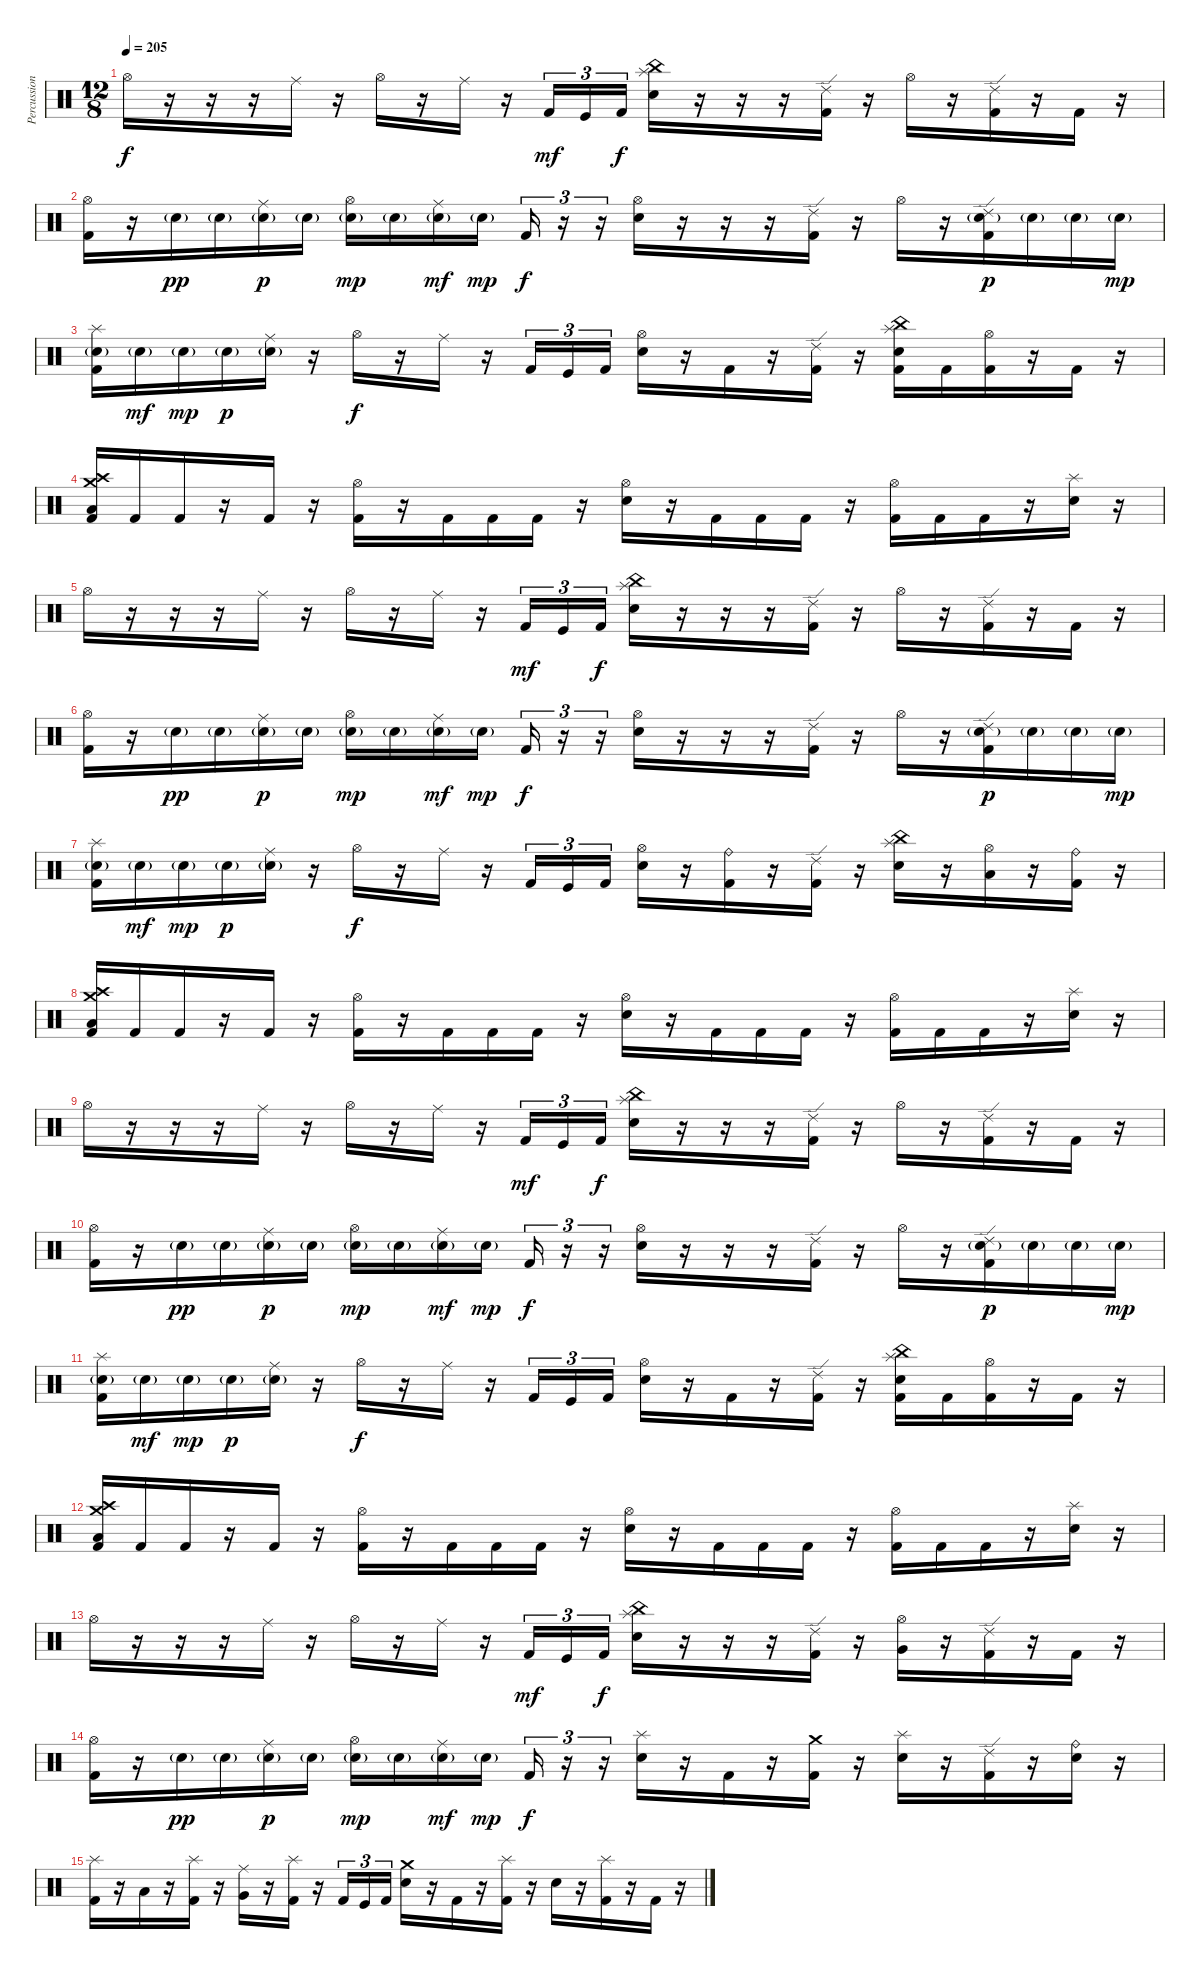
\track ("Percussion" "Percussion") {instrument percussion}
\staff {score}
\articulation defaults
\ts (12 8)
\tempo 205
\clef neutral
\ks c "Hi-Hat (open)".16{dy f}
r.16 r.16 r.16 "Ride (middle)".16 r.16 "Hi-Hat (open)".16 r.16 "Ride (middle)".16 r.16 "Kick (hit) 2".16{tu (3 2) dy mf} "Kick (hit)".16{tu (3 2)} "Kick (hit) 2".16{tu (3 2) dy f} ("China (hit)" "Splash (hit)" "Electric Snare (hit)").16 r.16 r.16 r.16 ("Ride (edge) 2" "Kick (hit) 2").16 r.16 "Hi-Hat (open)".16 r.16 ("Ride (edge) 2" "Kick (hit) 2").16 r.16 "Kick (hit) 2".16 r.16 |
("Hi-Hat (open)" "Kick (hit) 2").16 r.16 "Electric Snare (hit)"{g}.16{dy pp} "Electric Snare (hit)"{g}.16 ("Ride (middle)" "Electric Snare (hit)"{g}).16{dy p} "Electric Snare (hit)"{g}.16 ("Hi-Hat (open)" "Electric Snare (hit)"{g}).16{dy mp} "Electric Snare (hit)"{g}.16 ("Ride (middle)" "Electric Snare (hit)"{g}).16{dy mf} "Electric Snare (hit)"{g}.16{dy mp} "Kick (hit) 2".16{tu (3 2) dy f} r.16{tu (3 2)} r.16{tu (3 2)} ("Hi-Hat (open)" "Electric Snare (hit)").16 r.16 r.16 r.16 ("Ride (edge) 2" "Kick (hit) 2").16 r.16 "Hi-Hat (open)".16 r.16 ("Ride (edge) 2" "Electric Snare (hit)"{g} "Kick (hit) 2").16{dy p} "Electric Snare (hit)"{g}.16 "Electric Snare (hit)"{g}.16 "Electric Snare (hit)"{g}.16{dy mp} |
("Splash (hit)" "Electric Snare (hit)"{g} "Kick (hit) 2").16 "Electric Snare (hit)"{g}.16{dy mf} "Electric Snare (hit)"{g}.16{dy mp} "Electric Snare (hit)"{g}.16{dy p} ("Ride (middle)" "Electric Snare (hit)"{g}).16 r.16 "Hi-Hat (open)".16{dy f} r.16 "Ride (middle)".16 r.16 "Kick (hit) 2".16{tu (3 2)} "Kick (hit)".16{tu (3 2)} "Kick (hit) 2".16{tu (3 2)} ("Hi-Hat (open)" "Electric Snare (hit)").16 r.16 "Kick (hit) 2".16 r.16 ("Ride (edge) 2" "Kick (hit) 2").16 r.16 ("China (hit)" "Splash (hit)" "Electric Snare (hit)" "Kick (hit) 2").16 "Kick (hit) 2".16 ("Hi-Hat (open)" "Kick (hit) 2").16 r.16 "Kick (hit) 2".16 r.16 |
("Crash high (hit)" "Crash medium (hit)" "Low Floor Tom (hit)" "Kick (hit) 2").16 "Kick (hit) 2".16 "Kick (hit) 2".16 r.16 "Kick (hit) 2".16 r.16 ("Hi-Hat (open)" "Kick (hit) 2").16 r.16 "Kick (hit) 2".16 "Kick (hit) 2".16 "Kick (hit) 2".16 r.16 ("Hi-Hat (open)" "Electric Snare (hit)").16 r.16 "Kick (hit) 2".16 "Kick (hit) 2".16 "Kick (hit) 2".16 r.16 ("Hi-Hat (open)" "Kick (hit) 2").16 "Kick (hit) 2".16 "Kick (hit) 2".16 r.16 ("Splash (hit)" "Electric Snare (hit)").16 r.16 |
"Hi-Hat (open)".16 r.16 r.16 r.16 "Ride (middle)".16 r.16 "Hi-Hat (open)".16 r.16 "Ride (middle)".16 r.16 "Kick (hit) 2".16{tu (3 2) dy mf} "Kick (hit)".16{tu (3 2)} "Kick (hit) 2".16{tu (3 2) dy f} ("China (hit)" "Splash (hit)" "Electric Snare (hit)").16 r.16 r.16 r.16 ("Ride (edge) 2" "Kick (hit) 2").16 r.16 "Hi-Hat (open)".16 r.16 ("Ride (edge) 2" "Kick (hit) 2").16 r.16 "Kick (hit) 2".16 r.16 |
("Hi-Hat (open)" "Kick (hit) 2").16 r.16 "Electric Snare (hit)"{g}.16{dy pp} "Electric Snare (hit)"{g}.16 ("Ride (middle)" "Electric Snare (hit)"{g}).16{dy p} "Electric Snare (hit)"{g}.16 ("Hi-Hat (open)" "Electric Snare (hit)"{g}).16{dy mp} "Electric Snare (hit)"{g}.16 ("Ride (middle)" "Electric Snare (hit)"{g}).16{dy mf} "Electric Snare (hit)"{g}.16{dy mp} "Kick (hit) 2".16{tu (3 2) dy f} r.16{tu (3 2)} r.16{tu (3 2)} ("Hi-Hat (open)" "Electric Snare (hit)").16 r.16 r.16 r.16 ("Ride (edge) 2" "Kick (hit) 2").16 r.16 "Hi-Hat (open)".16 r.16 ("Ride (edge) 2" "Electric Snare (hit)"{g} "Kick (hit) 2").16{dy p} "Electric Snare (hit)"{g}.16 "Electric Snare (hit)"{g}.16 "Electric Snare (hit)"{g}.16{dy mp} |
("Splash (hit)" "Electric Snare (hit)"{g} "Kick (hit) 2").16 "Electric Snare (hit)"{g}.16{dy mf} "Electric Snare (hit)"{g}.16{dy mp} "Electric Snare (hit)"{g}.16{dy p} ("Ride (middle)" "Electric Snare (hit)"{g}).16 r.16 "Hi-Hat (open)".16{dy f} r.16 "Ride (middle)".16 r.16 "Kick (hit) 2".16{tu (3 2)} "Kick (hit)".16{tu (3 2)} "Kick (hit) 2".16{tu (3 2)} ("Hi-Hat (open)" "Electric Snare (hit)").16 r.16 ("Ride (bell)" "Kick (hit) 2").16 r.16 ("Ride (edge) 2" "Kick (hit) 2").16 r.16 ("China (hit)" "Splash (hit)" "Electric Snare (hit)").16 r.16 ("Hi-Hat (open)" "Low Tom (hit)").16 r.16 ("Ride (bell)" "Kick (hit) 2").16 r.16 |
("Crash high (hit)" "Crash medium (hit)" "Low Floor Tom (hit)" "Kick (hit) 2").16 "Kick (hit) 2".16 "Kick (hit) 2".16 r.16 "Kick (hit) 2".16 r.16 ("Hi-Hat (open)" "Kick (hit) 2").16 r.16 "Kick (hit) 2".16 "Kick (hit) 2".16 "Kick (hit) 2".16 r.16 ("Hi-Hat (open)" "Electric Snare (hit)").16 r.16 "Kick (hit) 2".16 "Kick (hit) 2".16 "Kick (hit) 2".16 r.16 ("Hi-Hat (open)" "Kick (hit) 2").16 "Kick (hit) 2".16 "Kick (hit) 2".16 r.16 ("Splash (hit)" "Electric Snare (hit)").16 r.16 |
"Hi-Hat (open)".16 r.16 r.16 r.16 "Ride (middle)".16 r.16 "Hi-Hat (open)".16 r.16 "Ride (middle)".16 r.16 "Kick (hit) 2".16{tu (3 2) dy mf} "Kick (hit)".16{tu (3 2)} "Kick (hit) 2".16{tu (3 2) dy f} ("China (hit)" "Splash (hit)" "Electric Snare (hit)").16 r.16 r.16 r.16 ("Ride (edge) 2" "Kick (hit) 2").16 r.16 "Hi-Hat (open)".16 r.16 ("Ride (edge) 2" "Kick (hit) 2").16 r.16 "Kick (hit) 2".16 r.16 |
("Hi-Hat (open)" "Kick (hit) 2").16 r.16 "Electric Snare (hit)"{g}.16{dy pp} "Electric Snare (hit)"{g}.16 ("Ride (middle)" "Electric Snare (hit)"{g}).16{dy p} "Electric Snare (hit)"{g}.16 ("Hi-Hat (open)" "Electric Snare (hit)"{g}).16{dy mp} "Electric Snare (hit)"{g}.16 ("Ride (middle)" "Electric Snare (hit)"{g}).16{dy mf} "Electric Snare (hit)"{g}.16{dy mp} "Kick (hit) 2".16{tu (3 2) dy f} r.16{tu (3 2)} r.16{tu (3 2)} ("Hi-Hat (open)" "Electric Snare (hit)").16 r.16 r.16 r.16 ("Ride (edge) 2" "Kick (hit) 2").16 r.16 "Hi-Hat (open)".16 r.16 ("Ride (edge) 2" "Electric Snare (hit)"{g} "Kick (hit) 2").16{dy p} "Electric Snare (hit)"{g}.16 "Electric Snare (hit)"{g}.16 "Electric Snare (hit)"{g}.16{dy mp} |
("Splash (hit)" "Electric Snare (hit)"{g} "Kick (hit) 2").16 "Electric Snare (hit)"{g}.16{dy mf} "Electric Snare (hit)"{g}.16{dy mp} "Electric Snare (hit)"{g}.16{dy p} ("Ride (middle)" "Electric Snare (hit)"{g}).16 r.16 "Hi-Hat (open)".16{dy f} r.16 "Ride (middle)".16 r.16 "Kick (hit) 2".16{tu (3 2)} "Kick (hit)".16{tu (3 2)} "Kick (hit) 2".16{tu (3 2)} ("Hi-Hat (open)" "Electric Snare (hit)").16 r.16 "Kick (hit) 2".16 r.16 ("Ride (edge) 2" "Kick (hit) 2").16 r.16 ("China (hit)" "Splash (hit)" "Electric Snare (hit)" "Kick (hit) 2").16 "Kick (hit) 2".16 ("Hi-Hat (open)" "Kick (hit) 2").16 r.16 "Kick (hit) 2".16 r.16 |
("Crash high (hit)" "Crash medium (hit)" "Low Floor Tom (hit)" "Kick (hit) 2").16 "Kick (hit) 2".16 "Kick (hit) 2".16 r.16 "Kick (hit) 2".16 r.16 ("Hi-Hat (open)" "Kick (hit) 2").16 r.16 "Kick (hit) 2".16 "Kick (hit) 2".16 "Kick (hit) 2".16 r.16 ("Hi-Hat (open)" "Electric Snare (hit)").16 r.16 "Kick (hit) 2".16 "Kick (hit) 2".16 "Kick (hit) 2".16 r.16 ("Hi-Hat (open)" "Kick (hit) 2").16 "Kick (hit) 2".16 "Kick (hit) 2".16 r.16 ("Splash (hit)" "Electric Snare (hit)").16 r.16 |
"Hi-Hat (open)".16 r.16 r.16 r.16 "Ride (middle)".16 r.16 "Hi-Hat (open)".16 r.16 "Ride (middle)".16 r.16 "Kick (hit) 2".16{tu (3 2) dy mf} "Kick (hit)".16{tu (3 2)} "Kick (hit) 2".16{tu (3 2) dy f} ("China (hit)" "Splash (hit)" "Electric Snare (hit)").16 r.16 r.16 r.16 ("Ride (edge) 2" "Kick (hit) 2").16 r.16 ("Hi-Hat (open)" "Very Low Tom (hit)").16 r.16 ("Ride (edge) 2" "Kick (hit) 2").16 r.16 "Kick (hit) 2".16 r.16 |
("Hi-Hat (open)" "Kick (hit) 2").16 r.16 "Electric Snare (hit)"{g}.16{dy pp} "Electric Snare (hit)"{g}.16 ("Ride (middle)" "Electric Snare (hit)"{g}).16{dy p} "Electric Snare (hit)"{g}.16 ("Hi-Hat (open)" "Electric Snare (hit)"{g}).16{dy mp} "Electric Snare (hit)"{g}.16 ("Ride (middle)" "Electric Snare (hit)"{g}).16{dy mf} "Electric Snare (hit)"{g}.16{dy mp} "Kick (hit) 2".16{tu (3 2) dy f} r.16{tu (3 2)} r.16{tu (3 2)} ("Splash (hit)" "Electric Snare (hit)").16 r.16 "Kick (hit) 2".16 r.16 ("Crash medium (hit)" "Kick (hit) 2").16 r.16 ("Splash (hit)" "Electric Snare (hit)").16 r.16 ("Ride (edge) 2" "Kick (hit) 2").16 r.16 ("Ride (bell)" "Electric Snare (hit)").16 r.16 |
("Splash (hit)" "Kick (hit) 2").16 r.16 "Low Floor Tom (hit)".16 r.16 ("Splash (hit)" "Kick (hit) 2").16 r.16 ("Ride (middle)" "Very Low Tom (hit)").16 r.16 ("Splash (hit)" "Kick (hit) 2").16 r.16 "Kick (hit) 2".16{tu (3 2)} "Kick (hit)".16{tu (3 2)} "Kick (hit) 2".16{tu (3 2)} ("Crash medium (hit)" "Electric Snare (hit)").16 r.16 "Kick (hit) 2".16 r.16 ("Splash (hit)" "Kick (hit) 2").16 r.16 "Electric Snare (hit)".16 r.16 ("Splash (hit)" "Kick (hit) 2").16 r.16 "Kick (hit) 2".16 r.16
